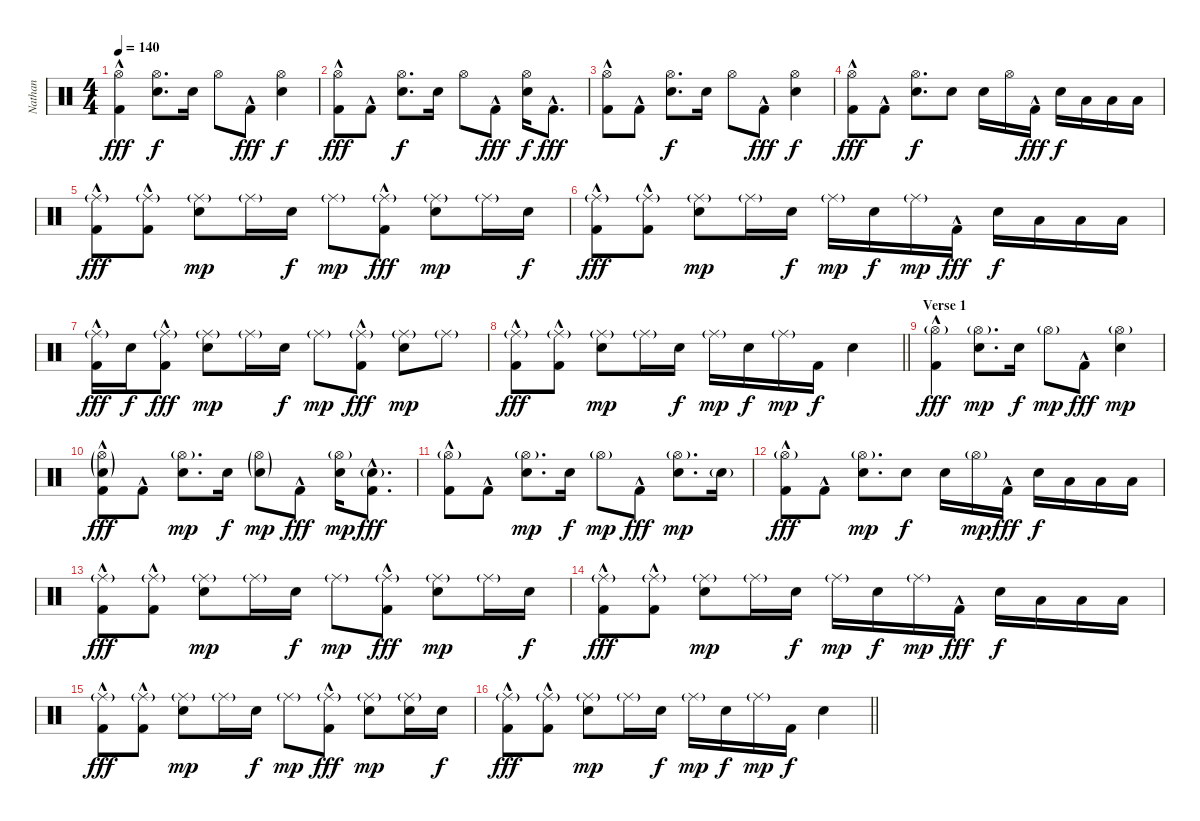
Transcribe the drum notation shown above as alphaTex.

\track ("Nathan" "Nathan") {instrument percussion}
\staff {score}
\articulation defaults
\ts (4 4)
\tempo 140
\clef neutral
\ks c
("Hi-Hat (open)" "Kick (hit) 2"{hac}).4{dy fff} ("Hi-Hat (open)" "Snare (hit) 2").8{d dy f} "Snare (hit) 2".16 "Hi-Hat (open)".8 "Kick (hit) 2"{hac}.8{dy fff} ("Hi-Hat (open)" "Snare (hit) 2").4{dy f} |
("Hi-Hat (open)" "Kick (hit) 2"{hac}).8{dy fff} "Kick (hit) 2"{hac}.8 ("Hi-Hat (open)" "Snare (hit) 2").8{d dy f} "Snare (hit) 2".16 "Hi-Hat (open)".8 "Kick (hit) 2"{hac}.8{dy fff} ("Hi-Hat (open)" "Snare (hit) 2").16{dy f} "Kick (hit) 2"{hac}.8{d dy fff} |
("Hi-Hat (open)" "Kick (hit) 2"{hac}).8 "Kick (hit) 2"{hac}.8 ("Hi-Hat (open)" "Snare (hit) 2").8{d dy f} "Snare (hit) 2".16 "Hi-Hat (open)".8 "Kick (hit) 2"{hac}.8{dy fff} ("Hi-Hat (open)" "Snare (hit) 2").4{dy f} |
("Hi-Hat (open)" "Kick (hit) 2"{hac}).8{dy fff} "Kick (hit) 2"{hac}.8 ("Hi-Hat (open)" "Snare (hit) 2").8{d dy f} "Snare (hit) 2".8 "Snare (hit) 2".16 "Hi-Hat (open)".16 "Kick (hit) 2"{hac}.16{dy fff} "Snare (hit) 2".16{dy f} "Low Tom (hit)".16 "Low Tom (hit)".16 "Low Tom (hit)".16 |
("Ride (middle)"{g} "Kick (hit) 2"{hac}).8{dy fff} ("Ride (middle)"{g} "Kick (hit) 2"{hac}).8 ("Ride (middle)"{g} "Snare (hit) 2").8{dy mp} "Ride (middle)"{g}.16 "Snare (hit) 2".16{dy f} "Ride (middle)"{g}.8{dy mp} ("Ride (middle)"{g} "Kick (hit) 2"{hac}).8{dy fff} ("Ride (middle)"{g} "Snare (hit) 2").8{dy mp} "Ride (middle)"{g}.16 "Snare (hit) 2".16{dy f} |
("Ride (middle)"{g} "Kick (hit) 2"{hac}).8{dy fff} ("Ride (middle)"{g} "Kick (hit) 2"{hac}).8 ("Ride (middle)"{g} "Snare (hit) 2").8{dy mp} "Ride (middle)"{g}.16 "Snare (hit) 2".16{dy f} "Ride (middle)"{g}.16{dy mp} "Snare (hit) 2".16{dy f} "Ride (middle)"{g}.16{dy mp} "Kick (hit) 2"{hac}.16{dy fff} "Snare (hit) 2".16{dy f} "Low Tom (hit)".16 "Low Tom (hit)".16 "Low Tom (hit)".16 |
("Ride (middle)"{g} "Kick (hit) 2"{hac}).16{dy fff} "Snare (hit) 2".16{dy f} ("Ride (middle)"{g} "Kick (hit) 2"{hac}).8{dy fff} ("Ride (middle)"{g} "Snare (hit) 2").8{dy mp} "Ride (middle)"{g}.16 "Snare (hit) 2".16{dy f} "Ride (middle)"{g}.8{dy mp} ("Ride (middle)"{g} "Kick (hit) 2"{hac}).8{dy fff} ("Ride (middle)"{g} "Snare (hit) 2").8{dy mp} "Ride (middle)"{g}.8 |
\barLineRight lightlight
("Ride (middle)"{g} "Kick (hit) 2"{hac}).8{dy fff} ("Ride (middle)"{g} "Kick (hit) 2"{hac}).8 ("Ride (middle)"{g} "Snare (hit) 2").8{dy mp} "Ride (middle)"{g}.16 "Snare (hit) 2".16{dy f} "Ride (middle)"{g}.16{dy mp} "Snare (hit) 2".16{dy f} "Ride (middle)"{g}.16{dy mp} "Kick (hit) 2".16{dy f} "Snare (hit) 2".4 |
\section ("" "Verse 1")
("Hi-Hat (open)"{g} "Kick (hit) 2"{hac}).4{dy fff} ("Hi-Hat (open)"{g} "Snare (hit) 2").8{d dy mp} "Snare (hit) 2".16{dy f} "Hi-Hat (open)"{g}.8{dy mp} "Kick (hit) 2"{hac}.8{dy fff} ("Hi-Hat (open)"{g} "Snare (hit) 2").4{dy mp} |
("Hi-Hat (open)"{g} "Snare (hit) 2"{g} "Kick (hit) 2"{hac}).8{dy fff} "Kick (hit) 2"{hac}.8 ("Hi-Hat (open)"{g} "Snare (hit) 2").8{d dy mp} "Snare (hit) 2".16{dy f} ("Hi-Hat (open)"{g} "Snare (hit) 2"{g}).8{dy mp} "Kick (hit) 2"{hac}.8{dy fff} ("Hi-Hat (open)"{g} "Snare (hit) 2").16{dy mp} ("Snare (hit) 2"{g} "Kick (hit) 2"{hac}).8{d dy fff} |
("Hi-Hat (open)"{g} "Kick (hit) 2"{hac}).8 "Kick (hit) 2"{hac}.8 ("Hi-Hat (open)"{g} "Snare (hit) 2").8{d dy mp} "Snare (hit) 2".16{dy f} "Hi-Hat (open)"{g}.8{dy mp} "Kick (hit) 2"{hac}.8{dy fff} ("Hi-Hat (open)"{g} "Snare (hit) 2").8{d dy mp} "Snare (hit) 2"{g}.16 |
("Hi-Hat (open)"{g} "Kick (hit) 2"{hac}).8{dy fff} "Kick (hit) 2"{hac}.8 ("Hi-Hat (open)"{g} "Snare (hit) 2").8{d dy mp} "Snare (hit) 2".8{dy f} "Snare (hit) 2".16 "Hi-Hat (open)"{g}.16{dy mp} "Kick (hit) 2"{hac}.16{dy fff} "Snare (hit) 2".16{dy f} "Low Tom (hit)".16 "Low Tom (hit)".16 "Low Tom (hit)".16 |
("Ride (middle)"{g} "Kick (hit) 2"{hac}).8{dy fff} ("Ride (middle)"{g} "Kick (hit) 2"{hac}).8 ("Ride (middle)"{g} "Snare (hit) 2").8{dy mp} "Ride (middle)"{g}.16 "Snare (hit) 2".16{dy f} "Ride (middle)"{g}.8{dy mp} ("Ride (middle)"{g} "Kick (hit) 2"{hac}).8{dy fff} ("Ride (middle)"{g} "Snare (hit) 2").8{dy mp} "Ride (middle)"{g}.16 "Snare (hit) 2".16{dy f} |
("Ride (middle)"{g} "Kick (hit) 2"{hac}).8{dy fff} ("Ride (middle)"{g} "Kick (hit) 2"{hac}).8 ("Ride (middle)"{g} "Snare (hit) 2").8{dy mp} "Ride (middle)"{g}.16 "Snare (hit) 2".16{dy f} "Ride (middle)"{g}.16{dy mp} "Snare (hit) 2".16{dy f} "Ride (middle)"{g}.16{dy mp} "Kick (hit) 2"{hac}.16{dy fff} "Snare (hit) 2".16{dy f} "Low Tom (hit)".16 "Low Tom (hit)".16 "Low Tom (hit)".16 |
("Ride (middle)"{g} "Kick (hit) 2"{hac}).8{dy fff} ("Ride (middle)"{g} "Kick (hit) 2"{hac}).8 ("Ride (middle)"{g} "Snare (hit) 2").8{dy mp} "Ride (middle)"{g}.16 "Snare (hit) 2".16{dy f} "Ride (middle)"{g}.8{dy mp} ("Ride (middle)"{g} "Kick (hit) 2"{hac}).8{dy fff} ("Ride (middle)"{g} "Snare (hit) 2").8{dy mp} ("Ride (middle)"{g} "Snare (hit) 2").16 "Snare (hit) 2".16{dy f} |
\barLineRight lightlight
("Ride (middle)"{g} "Kick (hit) 2"{hac}).8{dy fff} ("Ride (middle)"{g} "Kick (hit) 2"{hac}).8 ("Ride (middle)"{g} "Snare (hit) 2").8{dy mp} "Ride (middle)"{g}.16 "Snare (hit) 2".16{dy f} "Ride (middle)"{g}.16{dy mp} "Snare (hit) 2".16{dy f} "Ride (middle)"{g}.16{dy mp} "Kick (hit) 2".16{dy f} "Snare (hit) 2".4
